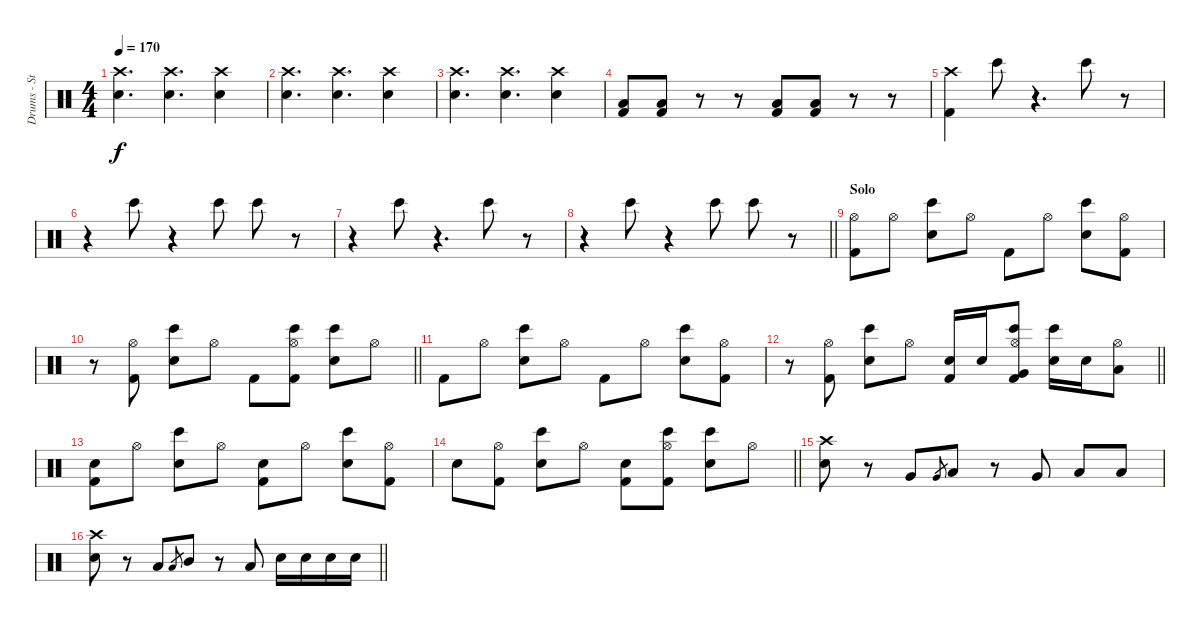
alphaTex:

\track ("Drums - Steeve" "Drums - St") {instrument percussion}
\staff {score}
\articulation defaults
\ts (4 4)
\tempo 170
\clef neutral
\ks c
("Crash high (hit)" "Electric Snare (hit)").4{d dy f} ("Crash high (hit)" "Electric Snare (hit)").4{d} ("Crash high (hit)" "Electric Snare (hit)").4 |
("Crash high (hit)" "Electric Snare (hit)").4{d} ("Crash high (hit)" "Electric Snare (hit)").4{d} ("Crash high (hit)" "Electric Snare (hit)").4 |
("Crash high (hit)" "Electric Snare (hit)").4{d} ("Crash high (hit)" "Electric Snare (hit)").4{d} ("Crash high (hit)" "Electric Snare (hit)").4 |
("Kick (hit) 2" "Low Floor Tom (hit)").8 ("Kick (hit) 2" "Low Floor Tom (hit)").8 r.8 r.8 ("Kick (hit) 2" "Low Floor Tom (hit)").8 ("Kick (hit) 2" "Low Floor Tom (hit)").8 r.8 r.8 |
("Crash high (hit)" "Kick (hit) 2").4 "Bongo High (hit)".8 r.4{d} "Bongo High (hit)".8 r.8 |
r.4 "Bongo High (hit)".8 r.4 "Bongo High (hit)".8 "Bongo High (hit)".8 r.8 |
r.4 "Bongo High (hit)".8 r.4{d} "Bongo High (hit)".8 r.8 |
\barLineRight lightlight
r.4 "Bongo High (hit)".8 r.4 "Bongo High (hit)".8 "Bongo High (hit)".8 r.8 |
\section ("" "Solo")
("Hi-Hat (open)" "Kick (hit) 2").8 "Hi-Hat (open)".8 ("Electric Snare (hit)" "Bongo High (hit)").8 "Hi-Hat (open)".8 "Kick (hit) 2".8 "Hi-Hat (open)".8 ("Electric Snare (hit)" "Bongo High (hit)").8 ("Hi-Hat (open)" "Kick (hit) 2").8 |
\barLineRight lightlight
r.8 ("Hi-Hat (open)" "Kick (hit) 2").8 ("Electric Snare (hit)" "Bongo High (hit)").8 "Hi-Hat (open)".8 "Kick (hit) 2".8 ("Hi-Hat (open)" "Kick (hit) 2" "Bongo High (hit)").8 ("Electric Snare (hit)" "Bongo High (hit)").8 "Hi-Hat (open)".8 |
"Kick (hit) 2".8 "Hi-Hat (open)".8 ("Electric Snare (hit)" "Bongo High (hit)").8 "Hi-Hat (open)".8 "Kick (hit) 2".8 "Hi-Hat (open)".8 ("Electric Snare (hit)" "Bongo High (hit)").8 ("Hi-Hat (open)" "Kick (hit) 2").8 |
\barLineRight lightlight
r.8 ("Hi-Hat (open)" "Kick (hit) 2").8 ("Electric Snare (hit)" "Bongo High (hit)").8 "Hi-Hat (open)".8 ("Kick (hit) 2" "Electric Snare (hit)").16 "Electric Snare (hit)".16 ("Hi-Hat (open)" "Kick (hit) 2" "Very Low Tom (hit)" "Bongo High (hit)").8 ("Electric Snare (hit)" "Bongo High (hit)").16 "Electric Snare (hit)".16 ("Hi-Hat (open)" "Low Floor Tom (hit)").8 |
("Kick (hit) 2" "Electric Snare (hit)").8 "Hi-Hat (open)".8 ("Electric Snare (hit)" "Bongo High (hit)").8 "Hi-Hat (open)".8 ("Kick (hit) 2" "Electric Snare (hit)").8 "Hi-Hat (open)".8 ("Electric Snare (hit)" "Bongo High (hit)").8 ("Hi-Hat (open)" "Kick (hit) 2").8 |
\barLineRight lightlight "Electric Snare (hit)".8
("Hi-Hat (open)" "Kick (hit) 2").8 ("Electric Snare (hit)" "Bongo High (hit)").8 "Hi-Hat (open)".8 ("Kick (hit) 2" "Electric Snare (hit)").8 ("Hi-Hat (open)" "Kick (hit) 2" "Bongo High (hit)").8 ("Electric Snare (hit)" "Bongo High (hit)").8 "Hi-Hat (open)".8 |
("Crash high (hit)" "Electric Snare (hit)").8 r.8 "Very Low Tom (hit)".8 "Very Low Tom (hit)".8{gr} "Low Tom (hit)".8 r.8 "Very Low Tom (hit)".8 "Low Floor Tom (hit)".8 "Low Floor Tom (hit)".8 |
\barLineRight lightlight
("Crash high (hit)" "Electric Snare (hit)").8 r.8 "Low Tom (hit)".8 "Low Tom (hit)".8{gr} "Mid Tom (hit)".8 r.8 "Low Tom (hit)".8 "Electric Snare (hit)".16 "Electric Snare (hit)".16 "Electric Snare (hit)".16 "Electric Snare (hit)".16
